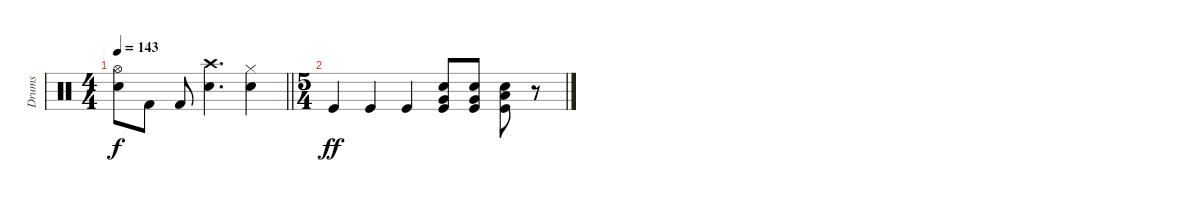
\track ("Drums" "Drums") {instrument percussion}
\staff {score}
\articulation defaults
\ts (4 4)
\tempo 143
\clef neutral
\barLineRight lightlight
\ks c
("Hi-Hat (open)" "Snare (hit) 2").8{dy f} "Kick (hit) 2".8 "Kick (hit) 2".8 ("Crash high (hit)" "Snare (hit) 2").4{d} ("Hi-Hat (closed)" "Snare (hit) 2").4 |
\ts (5 4)
"Kick (hit)".4{dy ff} "Kick (hit)".4 "Kick (hit)".4 ("Snare (hit) 2" "Kick (hit)" "Very Low Tom (hit)").8 ("Snare (hit) 2" "Kick (hit)" "Very Low Tom (hit)").8 ("Snare (hit) 2" "Kick (hit)" "Low Floor Tom (hit)").8 r.8
